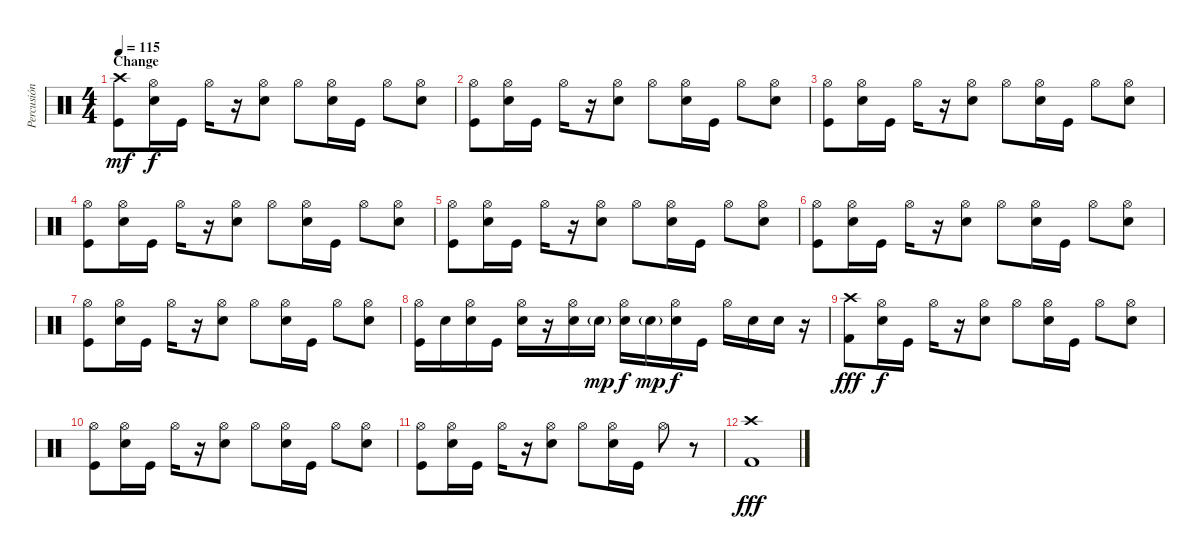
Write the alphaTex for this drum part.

\track ("Percusión" "Percusión") {instrument percussion}
\staff {score}
\articulation defaults
\ts (4 4)
\section ("" "Change")
\tempo 115
\clef neutral
\ks c
("Kick (hit)" "Crash high (hit)").8{dy mf} ("Electric Snare (hit)" "Hi-Hat (open)").16{dy f} "Kick (hit)".16 "Hi-Hat (open)".16 r.16 ("Electric Snare (hit)" "Hi-Hat (open)").8 "Hi-Hat (open)".8 ("Electric Snare (hit)" "Hi-Hat (open)").16 "Kick (hit)".16 "Hi-Hat (open)".8 ("Electric Snare (hit)" "Hi-Hat (open)").8 |
("Kick (hit)" "Hi-Hat (open)").8 ("Electric Snare (hit)" "Hi-Hat (open)").16 "Kick (hit)".16 "Hi-Hat (open)".16 r.16 ("Electric Snare (hit)" "Hi-Hat (open)").8 "Hi-Hat (open)".8 ("Electric Snare (hit)" "Hi-Hat (open)").16 "Kick (hit)".16 "Hi-Hat (open)".8 ("Electric Snare (hit)" "Hi-Hat (open)").8 |
("Kick (hit)" "Hi-Hat (open)").8 ("Electric Snare (hit)" "Hi-Hat (open)").16 "Kick (hit)".16 "Hi-Hat (open)".16 r.16 ("Electric Snare (hit)" "Hi-Hat (open)").8 "Hi-Hat (open)".8 ("Electric Snare (hit)" "Hi-Hat (open)").16 "Kick (hit)".16 "Hi-Hat (open)".8 ("Electric Snare (hit)" "Hi-Hat (open)").8 |
("Kick (hit)" "Hi-Hat (open)").8 ("Electric Snare (hit)" "Hi-Hat (open)").16 "Kick (hit)".16 "Hi-Hat (open)".16 r.16 ("Electric Snare (hit)" "Hi-Hat (open)").8 "Hi-Hat (open)".8 ("Electric Snare (hit)" "Hi-Hat (open)").16 "Kick (hit)".16 "Hi-Hat (open)".8 ("Electric Snare (hit)" "Hi-Hat (open)").8 |
("Kick (hit)" "Hi-Hat (open)").8 ("Electric Snare (hit)" "Hi-Hat (open)").16 "Kick (hit)".16 "Hi-Hat (open)".16 r.16 ("Electric Snare (hit)" "Hi-Hat (open)").8 "Hi-Hat (open)".8 ("Electric Snare (hit)" "Hi-Hat (open)").16 "Kick (hit)".16 "Hi-Hat (open)".8 ("Electric Snare (hit)" "Hi-Hat (open)").8 |
("Kick (hit)" "Hi-Hat (open)").8 ("Electric Snare (hit)" "Hi-Hat (open)").16 "Kick (hit)".16 "Hi-Hat (open)".16 r.16 ("Electric Snare (hit)" "Hi-Hat (open)").8 "Hi-Hat (open)".8 ("Electric Snare (hit)" "Hi-Hat (open)").16 "Kick (hit)".16 "Hi-Hat (open)".8 ("Electric Snare (hit)" "Hi-Hat (open)").8 |
("Kick (hit)" "Hi-Hat (open)").8 ("Electric Snare (hit)" "Hi-Hat (open)").16 "Kick (hit)".16 "Hi-Hat (open)".16 r.16 ("Electric Snare (hit)" "Hi-Hat (open)").8 "Hi-Hat (open)".8 ("Electric Snare (hit)" "Hi-Hat (open)").16 "Kick (hit)".16 "Hi-Hat (open)".8 ("Electric Snare (hit)" "Hi-Hat (open)").8 |
("Kick (hit)" "Hi-Hat (open)").16 "Electric Snare (hit)".16 ("Electric Snare (hit)" "Hi-Hat (open)").16 "Kick (hit)".16 ("Electric Snare (hit)" "Hi-Hat (open)").16 r.16 ("Electric Snare (hit)" "Hi-Hat (open)").16 "Electric Snare (hit)"{g}.16{dy mp} ("Electric Snare (hit)" "Hi-Hat (open)").16{dy f} "Electric Snare (hit)"{g}.16{dy mp} ("Electric Snare (hit)" "Hi-Hat (open)").16{dy f} "Kick (hit)".16 "Hi-Hat (open)".16 "Electric Snare (hit)".16 "Electric Snare (hit)".16 r.16 |
("Kick (hit) 2" "Crash high (hit)").8{dy fff} ("Electric Snare (hit)" "Hi-Hat (open)").16{dy f} "Kick (hit)".16 "Hi-Hat (open)".16 r.16 ("Electric Snare (hit)" "Hi-Hat (open)").8 "Hi-Hat (open)".8 ("Electric Snare (hit)" "Hi-Hat (open)").16 "Kick (hit)".16 "Hi-Hat (open)".8 ("Electric Snare (hit)" "Hi-Hat (open)").8 |
("Kick (hit)" "Hi-Hat (open)").8 ("Electric Snare (hit)" "Hi-Hat (open)").16 "Kick (hit)".16 "Hi-Hat (open)".16 r.16 ("Electric Snare (hit)" "Hi-Hat (open)").8 "Hi-Hat (open)".8 ("Electric Snare (hit)" "Hi-Hat (open)").16 "Kick (hit)".16 "Hi-Hat (open)".8 ("Electric Snare (hit)" "Hi-Hat (open)").8 |
("Kick (hit)" "Hi-Hat (open)").8 ("Electric Snare (hit)" "Hi-Hat (open)").16 "Kick (hit)".16 "Hi-Hat (open)".16 r.16 ("Electric Snare (hit)" "Hi-Hat (open)").8 "Hi-Hat (open)".8 ("Electric Snare (hit)" "Hi-Hat (open)").16 "Kick (hit)".16 "Hi-Hat (open)".8 r.8 |
("Kick (hit) 2" "Crash high (hit)").1{dy fff}
